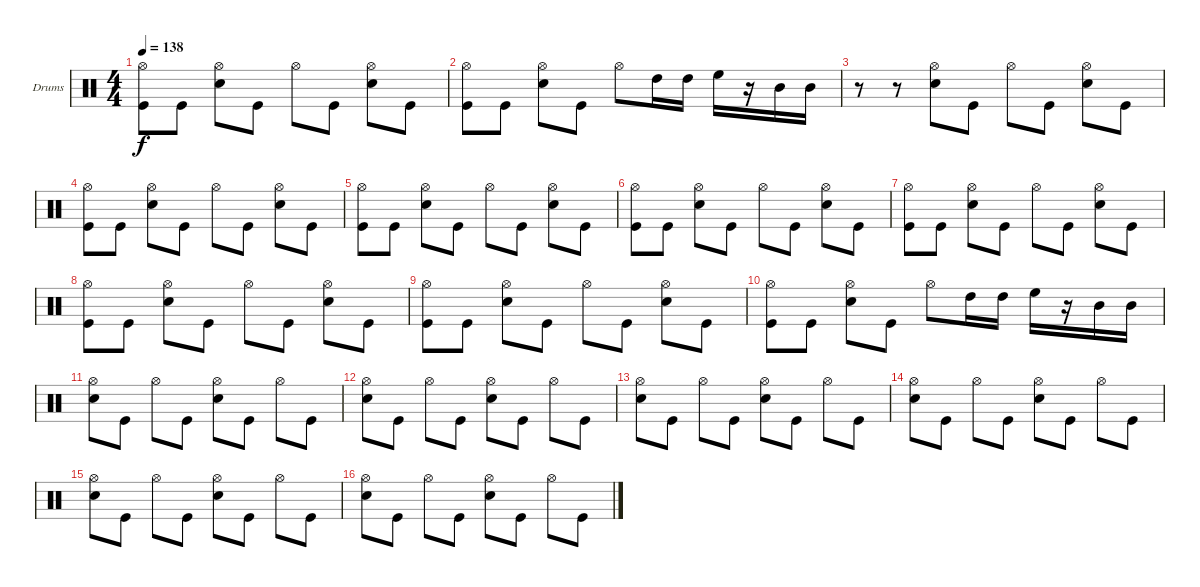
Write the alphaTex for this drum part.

\bracketExtendMode groupsimilarinstruments
\firstSystemTrackNameOrientation horizontal
\otherSystemsTrackNameOrientation horizontal
\track ("Drumkit" "Drums") {instrument percussion}
\staff {score}
\articulation defaults
\ts (4 4)
\tempo 138
\clef neutral
\ks c
("Hi-Hat (open)" "Kick (hit)").8{dy f} "Kick (hit)".8 ("Snare (hit) 2" "Hi-Hat (open)").8 "Kick (hit)".8 "Hi-Hat (open)".8 "Kick (hit)".8 ("Snare (hit) 2" "Hi-Hat (open)").8 "Kick (hit)".8 |
("Hi-Hat (open)" "Kick (hit)").8 "Kick (hit)".8 ("Snare (hit) 2" "Hi-Hat (open)").8 "Kick (hit)".8 "Hi-Hat (open)".8 "High Tom (hit)".16 "High Tom (hit)".16 "High Floor Tom (hit)".16 r.16 "Mid Tom (hit)".16 "Mid Tom (hit)".16 |
r.8 r.8 ("Snare (hit) 2" "Hi-Hat (open)").8 "Kick (hit)".8 "Hi-Hat (open)".8 "Kick (hit)".8 ("Snare (hit) 2" "Hi-Hat (open)").8 "Kick (hit)".8 |
("Hi-Hat (open)" "Kick (hit)").8 "Kick (hit)".8 ("Snare (hit) 2" "Hi-Hat (open)").8 "Kick (hit)".8 "Hi-Hat (open)".8 "Kick (hit)".8 ("Snare (hit) 2" "Hi-Hat (open)").8 "Kick (hit)".8 |
("Hi-Hat (open)" "Kick (hit)").8 "Kick (hit)".8 ("Snare (hit) 2" "Hi-Hat (open)").8 "Kick (hit)".8 "Hi-Hat (open)".8 "Kick (hit)".8 ("Snare (hit) 2" "Hi-Hat (open)").8 "Kick (hit)".8 |
("Hi-Hat (open)" "Kick (hit)").8 "Kick (hit)".8 ("Snare (hit) 2" "Hi-Hat (open)").8 "Kick (hit)".8 "Hi-Hat (open)".8 "Kick (hit)".8 ("Snare (hit) 2" "Hi-Hat (open)").8 "Kick (hit)".8 |
("Hi-Hat (open)" "Kick (hit)").8 "Kick (hit)".8 ("Snare (hit) 2" "Hi-Hat (open)").8 "Kick (hit)".8 "Hi-Hat (open)".8 "Kick (hit)".8 ("Snare (hit) 2" "Hi-Hat (open)").8 "Kick (hit)".8 |
("Hi-Hat (open)" "Kick (hit)").8 "Kick (hit)".8 ("Snare (hit) 2" "Hi-Hat (open)").8 "Kick (hit)".8 "Hi-Hat (open)".8 "Kick (hit)".8 ("Snare (hit) 2" "Hi-Hat (open)").8 "Kick (hit)".8 |
("Hi-Hat (open)" "Kick (hit)").8 "Kick (hit)".8 ("Snare (hit) 2" "Hi-Hat (open)").8 "Kick (hit)".8 "Hi-Hat (open)".8 "Kick (hit)".8 ("Snare (hit) 2" "Hi-Hat (open)").8 "Kick (hit)".8 |
("Hi-Hat (open)" "Kick (hit)").8 "Kick (hit)".8 ("Snare (hit) 2" "Hi-Hat (open)").8 "Kick (hit)".8 "Hi-Hat (open)".8 "High Tom (hit)".16 "High Tom (hit)".16 "High Floor Tom (hit)".16 r.16 "Mid Tom (hit)".16 "Mid Tom (hit)".16 |
("Snare (hit) 2" "Hi-Hat (open)").8 "Kick (hit)".8 "Hi-Hat (open)".8 "Kick (hit)".8 ("Snare (hit) 2" "Hi-Hat (open)").8 "Kick (hit)".8 "Hi-Hat (open)".8 "Kick (hit)".8 |
("Snare (hit) 2" "Hi-Hat (open)").8 "Kick (hit)".8 "Hi-Hat (open)".8 "Kick (hit)".8 ("Snare (hit) 2" "Hi-Hat (open)").8 "Kick (hit)".8 "Hi-Hat (open)".8 "Kick (hit)".8 |
("Snare (hit) 2" "Hi-Hat (open)").8 "Kick (hit)".8 "Hi-Hat (open)".8 "Kick (hit)".8 ("Snare (hit) 2" "Hi-Hat (open)").8 "Kick (hit)".8 "Hi-Hat (open)".8 "Kick (hit)".8 |
("Snare (hit) 2" "Hi-Hat (open)").8 "Kick (hit)".8 "Hi-Hat (open)".8 "Kick (hit)".8 ("Snare (hit) 2" "Hi-Hat (open)").8 "Kick (hit)".8 "Hi-Hat (open)".8 "Kick (hit)".8 |
("Snare (hit) 2" "Hi-Hat (open)").8 "Kick (hit)".8 "Hi-Hat (open)".8 "Kick (hit)".8 ("Snare (hit) 2" "Hi-Hat (open)").8 "Kick (hit)".8 "Hi-Hat (open)".8 "Kick (hit)".8 |
("Snare (hit) 2" "Hi-Hat (open)").8 "Kick (hit)".8 "Hi-Hat (open)".8 "Kick (hit)".8 ("Snare (hit) 2" "Hi-Hat (open)").8 "Kick (hit)".8 "Hi-Hat (open)".8 "Kick (hit)".8
